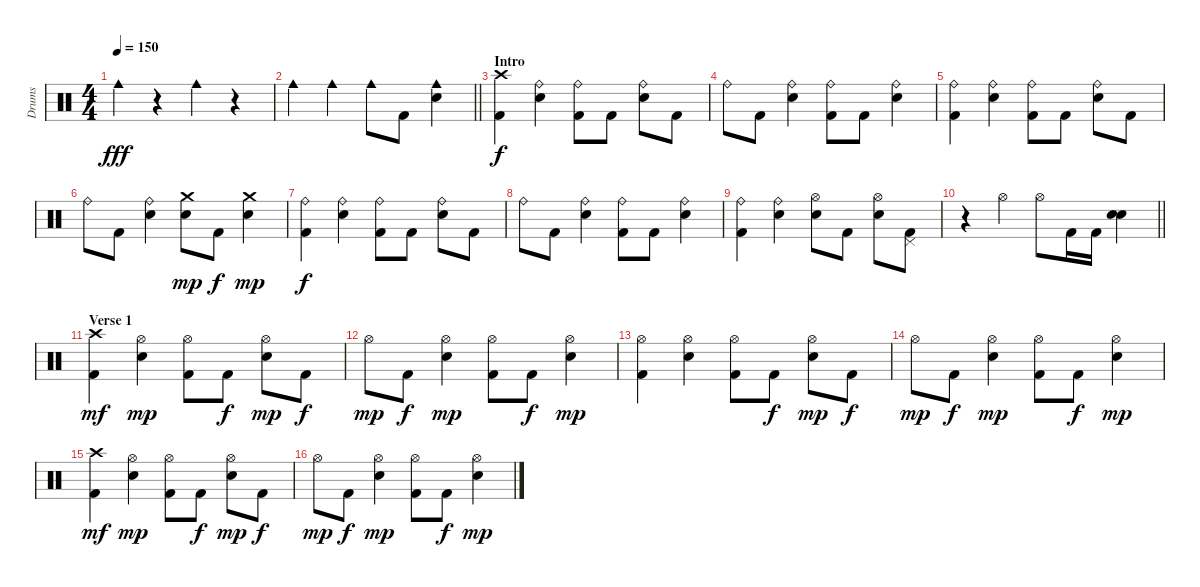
\track ("Drums" "Drums") {instrument percussion}
\staff {score}
\articulation defaults
\ts (4 4)
\tempo 150
\clef neutral
\ks c "Cowbell medium (hit)".4{dy fff}
r.4 "Cowbell medium (hit)".4 r.4 |
\barLineRight lightlight "Cowbell medium (hit)".4 "Cowbell medium (hit)".4 "Cowbell medium (hit)".8 "Kick (hit) 2".8
("Cowbell medium (hit)" "Snare (hit) 2").4 |
\section ("" "Intro")
("Crash high (hit)" "Kick (hit) 2").4{dy f} ("Ride (bell)" "Snare (hit) 2").4 ("Ride (bell)" "Kick (hit) 2").8 "Kick (hit) 2".8 ("Ride (bell)" "Snare (hit) 2").8 "Kick (hit) 2".8 |
"Ride (bell)".8 "Kick (hit) 2".8 ("Ride (bell)" "Snare (hit) 2").4 ("Ride (bell)" "Kick (hit) 2").8 "Kick (hit) 2".8 ("Ride (bell)" "Snare (hit) 2").4 |
("Ride (bell)" "Kick (hit) 2").4 ("Ride (bell)" "Snare (hit) 2").4 ("Ride (bell)" "Kick (hit) 2").8 "Kick (hit) 2".8 ("Ride (bell)" "Snare (hit) 2").8 "Kick (hit) 2".8 |
"Ride (bell)".8 "Kick (hit) 2".8 ("Ride (bell)" "Snare (hit) 2").4 ("Crash medium (hit)" "Snare (hit) 2").8{dy mp} "Kick (hit) 2".8{dy f} ("Crash medium (hit)" "Snare (hit) 2").4{dy mp} |
("Ride (bell)" "Kick (hit) 2").4{dy f} ("Ride (bell)" "Snare (hit) 2").4 ("Ride (bell)" "Kick (hit) 2").8 "Kick (hit) 2".8 ("Ride (bell)" "Snare (hit) 2").8 "Kick (hit) 2".8 |
"Ride (bell)".8 "Kick (hit) 2".8 ("Ride (bell)" "Snare (hit) 2").4 ("Ride (bell)" "Kick (hit) 2").8 "Kick (hit) 2".8 ("Ride (bell)" "Snare (hit) 2").4 |
("Ride (bell)" "Kick (hit) 2").4 ("Ride (bell)" "Snare (hit) 2").4 ("Hi-Hat (open)" "Snare (hit) 2").8 "Kick (hit) 2".8 ("Hi-Hat (open)" "Snare (hit) 2").8 ("Pedal Hi-Hat (hit)" "Kick (hit) 2").8 |
\barLineRight lightlight
r.4 "Hi-Hat (open)".4 "Hi-Hat (open)".8 "Kick (hit) 2".16 "Kick (hit) 2".16 ("Snare (hit) 2" "Snare (hit) 2").4 |
\section ("" "Verse 1")
("Crash high (hit)" "Kick (hit) 2").4{dy mf} ("Hi-Hat (open)" "Snare (hit) 2").4{dy mp} ("Hi-Hat (open)" "Kick (hit) 2").8 "Kick (hit) 2".8{dy f} ("Hi-Hat (open)" "Snare (hit) 2").8{dy mp} "Kick (hit) 2".8{dy f} |
"Hi-Hat (open)".8{dy mp} "Kick (hit) 2".8{dy f} ("Hi-Hat (open)" "Snare (hit) 2").4{dy mp} ("Hi-Hat (open)" "Kick (hit) 2").8 "Kick (hit) 2".8{dy f} ("Hi-Hat (open)" "Snare (hit) 2").4{dy mp} |
("Hi-Hat (open)" "Kick (hit) 2").4 ("Hi-Hat (open)" "Snare (hit) 2").4 ("Hi-Hat (open)" "Kick (hit) 2").8 "Kick (hit) 2".8{dy f} ("Hi-Hat (open)" "Snare (hit) 2").8{dy mp} "Kick (hit) 2".8{dy f} |
"Hi-Hat (open)".8{dy mp} "Kick (hit) 2".8{dy f} ("Hi-Hat (open)" "Snare (hit) 2").4{dy mp} ("Hi-Hat (open)" "Kick (hit) 2").8 "Kick (hit) 2".8{dy f} ("Hi-Hat (open)" "Snare (hit) 2").4{dy mp} |
("Crash high (hit)" "Kick (hit) 2").4{dy mf} ("Hi-Hat (open)" "Snare (hit) 2").4{dy mp} ("Hi-Hat (open)" "Kick (hit) 2").8 "Kick (hit) 2".8{dy f} ("Hi-Hat (open)" "Snare (hit) 2").8{dy mp} "Kick (hit) 2".8{dy f} |
"Hi-Hat (open)".8{dy mp} "Kick (hit) 2".8{dy f} ("Hi-Hat (open)" "Snare (hit) 2").4{dy mp} ("Hi-Hat (open)" "Kick (hit) 2").8 "Kick (hit) 2".8{dy f} ("Hi-Hat (open)" "Snare (hit) 2").4{dy mp}
